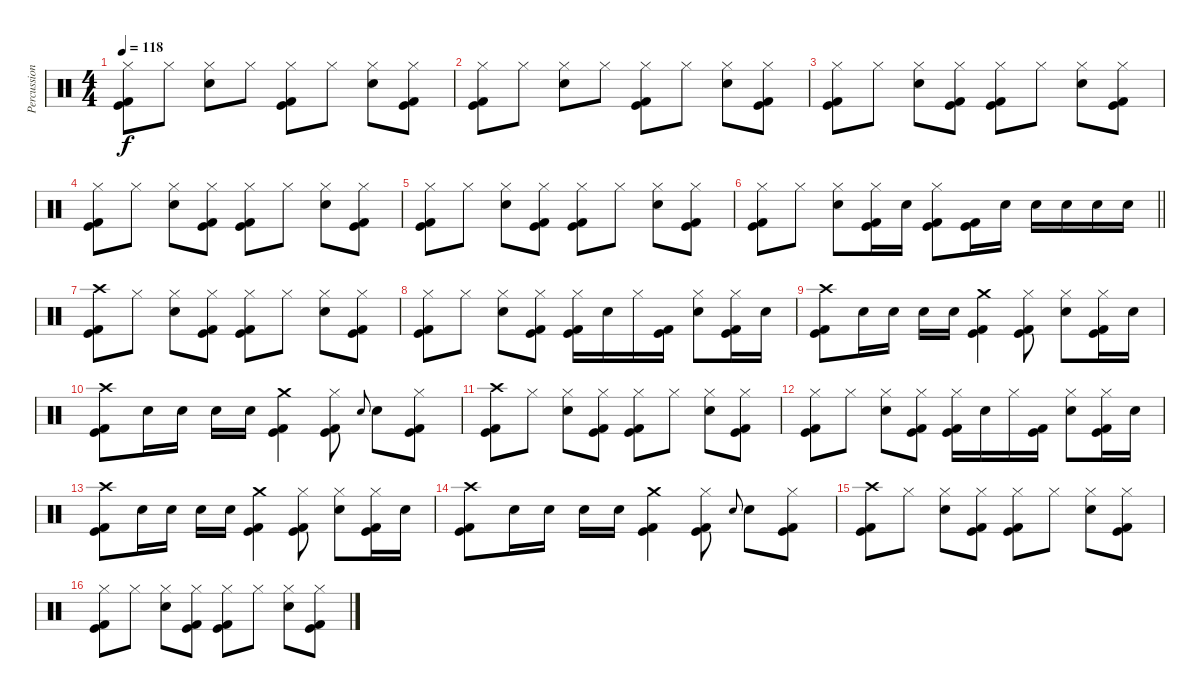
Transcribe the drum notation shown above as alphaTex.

\track ("Percussion" "Percussion") {instrument percussion}
\staff {score}
\articulation defaults
\ts (4 4)
\tempo 118
\clef neutral
\ks c
("Hi-Hat (closed)" "Kick (hit)" "Kick (hit) 2").8{dy f} "Hi-Hat (closed)".8 ("Hi-Hat (closed)" "Electric Snare (hit)").8 "Hi-Hat (closed)".8 ("Hi-Hat (closed)" "Kick (hit)" "Kick (hit) 2").8 "Hi-Hat (closed)".8 ("Hi-Hat (closed)" "Electric Snare (hit)").8 ("Hi-Hat (closed)" "Kick (hit)" "Kick (hit) 2").8 |
("Hi-Hat (closed)" "Kick (hit)" "Kick (hit) 2").8 "Hi-Hat (closed)".8 ("Hi-Hat (closed)" "Electric Snare (hit)").8 "Hi-Hat (closed)".8 ("Hi-Hat (closed)" "Kick (hit)" "Kick (hit) 2").8 "Hi-Hat (closed)".8 ("Hi-Hat (closed)" "Electric Snare (hit)").8 ("Hi-Hat (closed)" "Kick (hit)" "Kick (hit) 2").8 |
("Hi-Hat (closed)" "Kick (hit)" "Kick (hit) 2").8 "Hi-Hat (closed)".8 ("Hi-Hat (closed)" "Electric Snare (hit)").8 ("Hi-Hat (closed)" "Kick (hit)" "Kick (hit) 2").8 ("Hi-Hat (closed)" "Kick (hit)" "Kick (hit) 2").8 "Hi-Hat (closed)".8 ("Hi-Hat (closed)" "Electric Snare (hit)").8 ("Hi-Hat (closed)" "Kick (hit)" "Kick (hit) 2").8 |
("Hi-Hat (closed)" "Kick (hit)" "Kick (hit) 2").8 "Hi-Hat (closed)".8 ("Hi-Hat (closed)" "Electric Snare (hit)").8 ("Hi-Hat (closed)" "Kick (hit)" "Kick (hit) 2").8 ("Hi-Hat (closed)" "Kick (hit)" "Kick (hit) 2").8 "Hi-Hat (closed)".8 ("Hi-Hat (closed)" "Electric Snare (hit)").8 ("Hi-Hat (closed)" "Kick (hit)" "Kick (hit) 2").8 |
("Hi-Hat (closed)" "Kick (hit)" "Kick (hit) 2").8 "Hi-Hat (closed)".8 ("Hi-Hat (closed)" "Electric Snare (hit)").8 ("Hi-Hat (closed)" "Kick (hit)" "Kick (hit) 2").8 ("Hi-Hat (closed)" "Kick (hit)" "Kick (hit) 2").8 "Hi-Hat (closed)".8 ("Hi-Hat (closed)" "Electric Snare (hit)").8 ("Hi-Hat (closed)" "Kick (hit)" "Kick (hit) 2").8 |
\barLineRight lightlight
("Hi-Hat (closed)" "Kick (hit)" "Kick (hit) 2").8 "Hi-Hat (closed)".8 ("Hi-Hat (closed)" "Electric Snare (hit)").8 ("Hi-Hat (closed)" "Kick (hit)" "Kick (hit) 2").16 "Electric Snare (hit)".16 ("Hi-Hat (closed)" "Kick (hit)" "Kick (hit) 2").8 ("Kick (hit)" "Kick (hit) 2").16 "Electric Snare (hit)".16 "Electric Snare (hit)".16 "Electric Snare (hit)".16 "Electric Snare (hit)".16 "Electric Snare (hit)".16 |
\section ("" "")
("Crash high (hit)" "Kick (hit)" "Kick (hit) 2").8 "Hi-Hat (closed)".8 ("Hi-Hat (closed)" "Electric Snare (hit)").8 ("Hi-Hat (closed)" "Kick (hit)" "Kick (hit) 2").8 ("Hi-Hat (closed)" "Kick (hit)" "Kick (hit) 2").8 "Hi-Hat (closed)".8 ("Hi-Hat (closed)" "Electric Snare (hit)").8 ("Hi-Hat (closed)" "Kick (hit)" "Kick (hit) 2").8 |
("Hi-Hat (closed)" "Kick (hit)" "Kick (hit) 2").8 "Hi-Hat (closed)".8 ("Hi-Hat (closed)" "Electric Snare (hit)").8 ("Hi-Hat (closed)" "Kick (hit)" "Kick (hit) 2").8 ("Hi-Hat (closed)" "Kick (hit)" "Kick (hit) 2").16 "Electric Snare (hit)".16 "Hi-Hat (closed)".16 ("Kick (hit)" "Kick (hit) 2").16 ("Hi-Hat (closed)" "Electric Snare (hit)").8 ("Hi-Hat (closed)" "Kick (hit)" "Kick (hit) 2").16 "Electric Snare (hit)".16 |
("Crash high (hit)" "Kick (hit)" "Kick (hit) 2").8 "Electric Snare (hit)".16 "Electric Snare (hit)".16 "Electric Snare (hit)".16 "Electric Snare (hit)".16 ("Crash medium (hit)" "Kick (hit)" "Kick (hit) 2").4 ("Hi-Hat (closed)" "Kick (hit)" "Kick (hit) 2").8 ("Hi-Hat (closed)" "Electric Snare (hit)").8 ("Hi-Hat (closed)" "Kick (hit)" "Kick (hit) 2").16 "Electric Snare (hit)".16 |
("Crash high (hit)" "Kick (hit)" "Kick (hit) 2").8 "Electric Snare (hit)".16 "Electric Snare (hit)".16 "Electric Snare (hit)".16 "Electric Snare (hit)".16 ("Crash medium (hit)" "Kick (hit)" "Kick (hit) 2").4 ("Hi-Hat (closed)" "Kick (hit)" "Kick (hit) 2").8 "Electric Snare (hit)".8{gr onbeat} "Electric Snare (hit)".8 ("Hi-Hat (closed)" "Kick (hit)" "Kick (hit) 2").8 |
("Crash high (hit)" "Kick (hit)" "Kick (hit) 2").8 "Hi-Hat (closed)".8 ("Hi-Hat (closed)" "Electric Snare (hit)").8 ("Hi-Hat (closed)" "Kick (hit)" "Kick (hit) 2").8 ("Hi-Hat (closed)" "Kick (hit)" "Kick (hit) 2").8 "Hi-Hat (closed)".8 ("Hi-Hat (closed)" "Electric Snare (hit)").8 ("Hi-Hat (closed)" "Kick (hit)" "Kick (hit) 2").8 |
("Hi-Hat (closed)" "Kick (hit)" "Kick (hit) 2").8 "Hi-Hat (closed)".8 ("Hi-Hat (closed)" "Electric Snare (hit)").8 ("Hi-Hat (closed)" "Kick (hit)" "Kick (hit) 2").8 ("Hi-Hat (closed)" "Kick (hit)" "Kick (hit) 2").16 "Electric Snare (hit)".16 "Hi-Hat (closed)".16 ("Kick (hit)" "Kick (hit) 2").16 ("Hi-Hat (closed)" "Electric Snare (hit)").8 ("Hi-Hat (closed)" "Kick (hit)" "Kick (hit) 2").16 "Electric Snare (hit)".16 |
("Crash high (hit)" "Kick (hit)" "Kick (hit) 2").8 "Electric Snare (hit)".16 "Electric Snare (hit)".16 "Electric Snare (hit)".16 "Electric Snare (hit)".16 ("Crash medium (hit)" "Kick (hit)" "Kick (hit) 2").4 ("Hi-Hat (closed)" "Kick (hit)" "Kick (hit) 2").8 ("Hi-Hat (closed)" "Electric Snare (hit)").8 ("Hi-Hat (closed)" "Kick (hit)" "Kick (hit) 2").16 "Electric Snare (hit)".16 |
("Crash high (hit)" "Kick (hit)" "Kick (hit) 2").8 "Electric Snare (hit)".16 "Electric Snare (hit)".16 "Electric Snare (hit)".16 "Electric Snare (hit)".16 ("Crash medium (hit)" "Kick (hit)" "Kick (hit) 2").4 ("Hi-Hat (closed)" "Kick (hit)" "Kick (hit) 2").8 "Electric Snare (hit)".8{gr onbeat} "Electric Snare (hit)".8 ("Hi-Hat (closed)" "Kick (hit)" "Kick (hit) 2").8 |
("Crash high (hit)" "Kick (hit)" "Kick (hit) 2").8 "Hi-Hat (closed)".8 ("Hi-Hat (closed)" "Electric Snare (hit)").8 ("Hi-Hat (closed)" "Kick (hit)" "Kick (hit) 2").8 ("Hi-Hat (closed)" "Kick (hit)" "Kick (hit) 2").8 "Hi-Hat (closed)".8 ("Hi-Hat (closed)" "Electric Snare (hit)").8 ("Hi-Hat (closed)" "Kick (hit)" "Kick (hit) 2").8 |
("Hi-Hat (closed)" "Kick (hit)" "Kick (hit) 2").8 "Hi-Hat (closed)".8 ("Hi-Hat (closed)" "Electric Snare (hit)").8 ("Hi-Hat (closed)" "Kick (hit)" "Kick (hit) 2").8 ("Hi-Hat (closed)" "Kick (hit)" "Kick (hit) 2").8 "Hi-Hat (closed)".8 ("Hi-Hat (closed)" "Electric Snare (hit)").8 ("Hi-Hat (closed)" "Kick (hit)" "Kick (hit) 2").8
